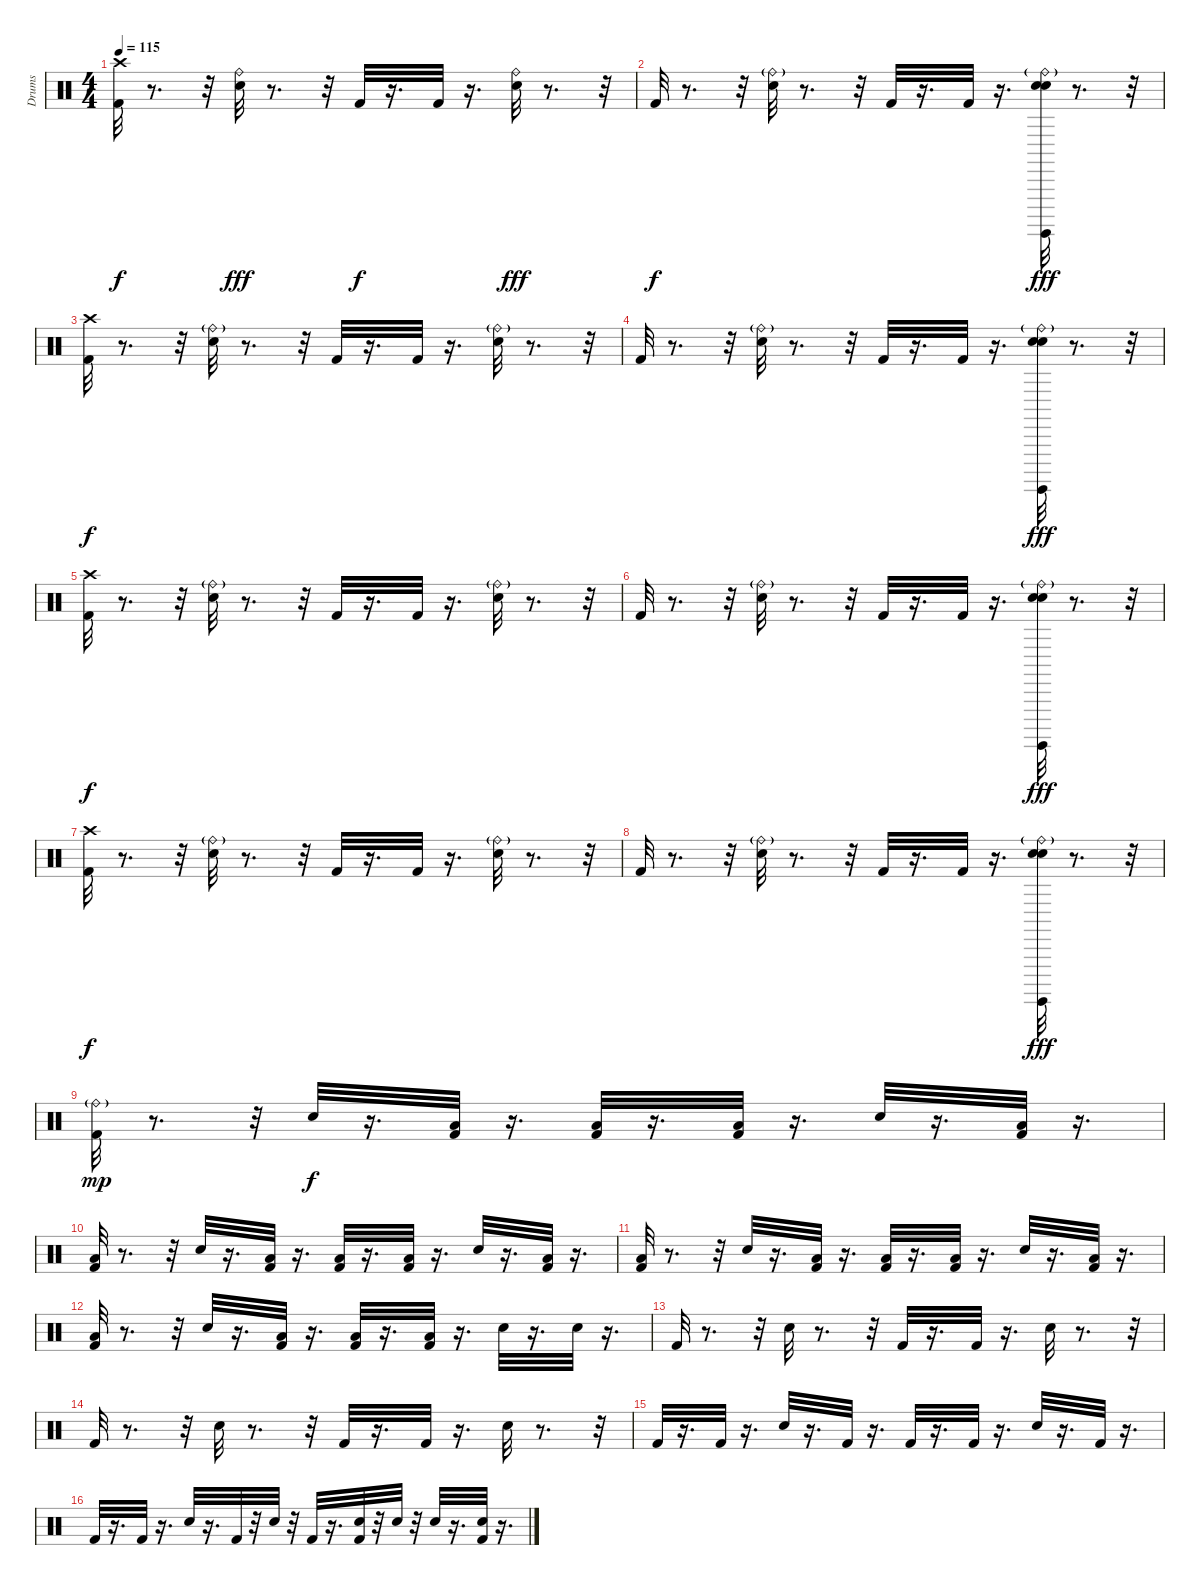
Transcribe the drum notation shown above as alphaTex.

\track ("Drums" "Drums") {instrument percussion}
\staff {score}
\articulation defaults
\ts (4 4)
\tempo 115
\clef neutral
\ks c
("Kick (hit) 2" "Crash high (hit)").32{dy f} r.8{d} r.32 ("Snare (hit) 2" "Ride (bell)").32{dy fff} r.8{d} r.32 "Kick (hit) 2".32{dy f} r.16{d} "Kick (hit) 2".32 r.16{d} ("Snare (hit) 2" "Ride (bell)").32{dy fff} r.8{d} r.32 |
"Kick (hit) 2".32{dy f} r.8{d} r.32 ("Snare (hit) 2" "Ride (bell)"{g}).32 r.8{d} r.32 "Kick (hit) 2".32 r.16{d} "Kick (hit) 2".32 r.16{d} ("Surdo (hit)" "Ride (bell)"{g} "Electric Snare (hit)" "Snare (hit) 2").32{dy fff} r.8{d} r.32 |
("Kick (hit) 2" "Crash high (hit)").32{dy f} r.8{d} r.32 ("Snare (hit) 2" "Ride (bell)"{g}).32 r.8{d} r.32 "Kick (hit) 2".32 r.16{d} "Kick (hit) 2".32 r.16{d} ("Snare (hit) 2" "Ride (bell)"{g}).32 r.8{d} r.32 |
"Kick (hit) 2".32 r.8{d} r.32 ("Snare (hit) 2" "Ride (bell)"{g}).32 r.8{d} r.32 "Kick (hit) 2".32 r.16{d} "Kick (hit) 2".32 r.16{d} ("Surdo (hit)" "Ride (bell)"{g} "Electric Snare (hit)" "Snare (hit) 2").32{dy fff} r.8{d} r.32 |
("Kick (hit) 2" "Crash high (hit)").32{dy f} r.8{d} r.32 ("Snare (hit) 2" "Ride (bell)"{g}).32 r.8{d} r.32 "Kick (hit) 2".32 r.16{d} "Kick (hit) 2".32 r.16{d} ("Snare (hit) 2" "Ride (bell)"{g}).32 r.8{d} r.32 |
"Kick (hit) 2".32 r.8{d} r.32 ("Snare (hit) 2" "Ride (bell)"{g}).32 r.8{d} r.32 "Kick (hit) 2".32 r.16{d} "Kick (hit) 2".32 r.16{d} ("Surdo (hit)" "Ride (bell)"{g} "Electric Snare (hit)" "Snare (hit) 2").32{dy fff} r.8{d} r.32 |
("Kick (hit) 2" "Crash high (hit)").32{dy f} r.8{d} r.32 ("Snare (hit) 2" "Ride (bell)"{g}).32 r.8{d} r.32 "Kick (hit) 2".32 r.16{d} "Kick (hit) 2".32 r.16{d} ("Snare (hit) 2" "Ride (bell)"{g}).32 r.8{d} r.32 |
"Kick (hit) 2".32 r.8{d} r.32 ("Snare (hit) 2" "Ride (bell)"{g}).32 r.8{d} r.32 "Kick (hit) 2".32 r.16{d} "Kick (hit) 2".32 r.16{d} ("Surdo (hit)" "Ride (bell)"{g} "Electric Snare (hit)" "Snare (hit) 2").32{dy fff} r.8{d} r.32 |
("Ride (bell)"{g} "Kick (hit) 2").32{dy mp} r.8{d} r.32 "Snare (hit) 2".32{dy f} r.16{d} ("Kick (hit) 2" "Low Floor Tom (hit)").32 r.16{d} ("Kick (hit) 2" "Low Floor Tom (hit)").32 r.16{d} ("Low Floor Tom (hit)" "Kick (hit) 2").32 r.16{d} "Snare (hit) 2".32 r.16{d} ("Low Floor Tom (hit)" "Kick (hit) 2").32 r.16{d} |
("Low Floor Tom (hit)" "Kick (hit) 2").32 r.8{d} r.32 "Snare (hit) 2".32 r.16{d} ("Kick (hit) 2" "Low Floor Tom (hit)").32 r.16{d} ("Kick (hit) 2" "Low Floor Tom (hit)").32 r.16{d} ("Low Floor Tom (hit)" "Kick (hit) 2").32 r.16{d} "Snare (hit) 2".32 r.16{d} ("Low Floor Tom (hit)" "Kick (hit) 2").32 r.16{d} |
("Low Floor Tom (hit)" "Kick (hit) 2").32 r.8{d} r.32 "Snare (hit) 2".32 r.16{d} ("Kick (hit) 2" "Low Floor Tom (hit)").32 r.16{d} ("Kick (hit) 2" "Low Floor Tom (hit)").32 r.16{d} ("Low Floor Tom (hit)" "Kick (hit) 2").32 r.16{d} "Snare (hit) 2".32 r.16{d} ("Low Floor Tom (hit)" "Kick (hit) 2").32 r.16{d} |
("Low Floor Tom (hit)" "Kick (hit) 2").32 r.8{d} r.32 "Snare (hit) 2".32 r.16{d} ("Kick (hit) 2" "Low Floor Tom (hit)").32 r.16{d} ("Kick (hit) 2" "Low Floor Tom (hit)").32 r.16{d} ("Low Floor Tom (hit)" "Kick (hit) 2").32 r.16{d} "Snare (hit) 2".32 r.16{d} "Snare (hit) 2".32 r.16{d} |
"Kick (hit) 2".32 r.8{d} r.32 "Snare (hit) 2".32 r.8{d} r.32 "Kick (hit) 2".32 r.16{d} "Kick (hit) 2".32 r.16{d} "Snare (hit) 2".32 r.8{d} r.32 |
"Kick (hit) 2".32 r.8{d} r.32 "Snare (hit) 2".32 r.8{d} r.32 "Kick (hit) 2".32 r.16{d} "Kick (hit) 2".32 r.16{d} "Snare (hit) 2".32 r.8{d} r.32 |
"Kick (hit) 2".32 r.16{d} "Kick (hit) 2".32 r.16{d} "Snare (hit) 2".32 r.16{d} "Kick (hit) 2".32 r.16{d} "Kick (hit) 2".32 r.16{d} "Kick (hit) 2".32 r.16{d} "Snare (hit) 2".32 r.16{d} "Kick (hit) 2".32 r.16{d} |
"Kick (hit) 2".32 r.16{d} "Kick (hit) 2".32 r.16{d} "Snare (hit) 2".32 r.16{d} "Kick (hit) 2".32 r.32 "Snare (hit) 2".32 r.32 "Kick (hit) 2".32 r.16{d} ("Snare (hit) 2" "Kick (hit) 2").32 r.32 "Snare (hit) 2".32 r.32 "Snare (hit) 2".32 r.16{d} ("Snare (hit) 2" "Kick (hit) 2").32 r.16{d}
